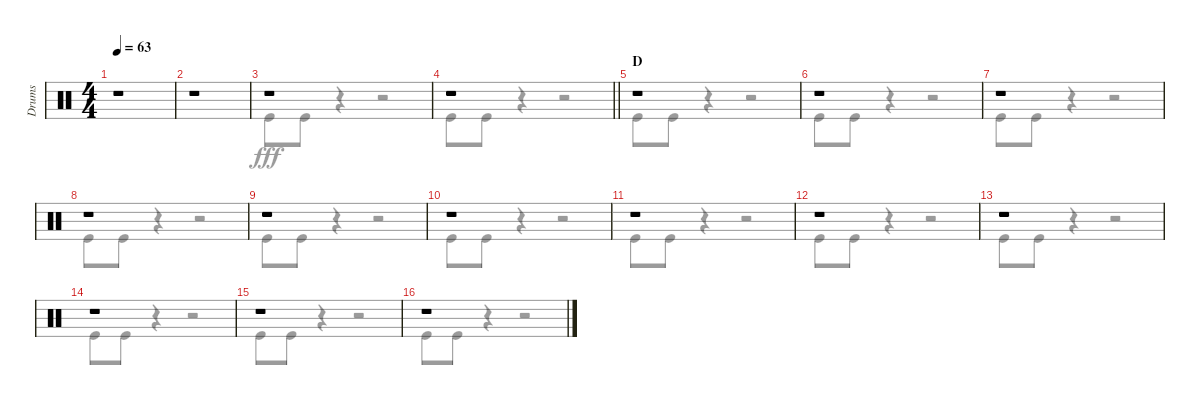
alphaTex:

\track ("Drums" "Drums") {instrument percussion}
\staff {score}
\articulation defaults
\voice
\ts (4 4)
\tempo 63
\clef neutral
\ks c
r.1{dy f} |
r.1 |
r.1 |
\barLineRight lightlight
r.1 |
\section ("" "D")
r.1 |
r.1 |
r.1 |
r.1 |
r.1 |
r.1 |
r.1 |
r.1 |
r.1 |
r.1 |
r.1 |
r.1
\voice
\clef neutral
\ottava regular
\simile none
\ks c
r.1{dy fff} |
r.1 |
"Kick (hit)".8 "Kick (hit)".8 r.4 r.2 |
\barLineRight lightlight "Kick (hit)".8 "Kick (hit)".8
r.4 r.2 |
"Kick (hit)".8 "Kick (hit)".8 r.4 r.2 |
"Kick (hit)".8 "Kick (hit)".8 r.4 r.2 |
"Kick (hit)".8 "Kick (hit)".8 r.4 r.2 |
"Kick (hit)".8 "Kick (hit)".8 r.4 r.2 |
"Kick (hit)".8 "Kick (hit)".8 r.4 r.2 |
"Kick (hit)".8 "Kick (hit)".8 r.4 r.2 |
"Kick (hit)".8 "Kick (hit)".8 r.4 r.2 |
"Kick (hit)".8 "Kick (hit)".8 r.4 r.2 |
"Kick (hit)".8 "Kick (hit)".8 r.4 r.2 |
"Kick (hit)".8 "Kick (hit)".8 r.4 r.2 |
"Kick (hit)".8 "Kick (hit)".8 r.4 r.2 |
"Kick (hit)".8 "Kick (hit)".8 r.4 r.2
